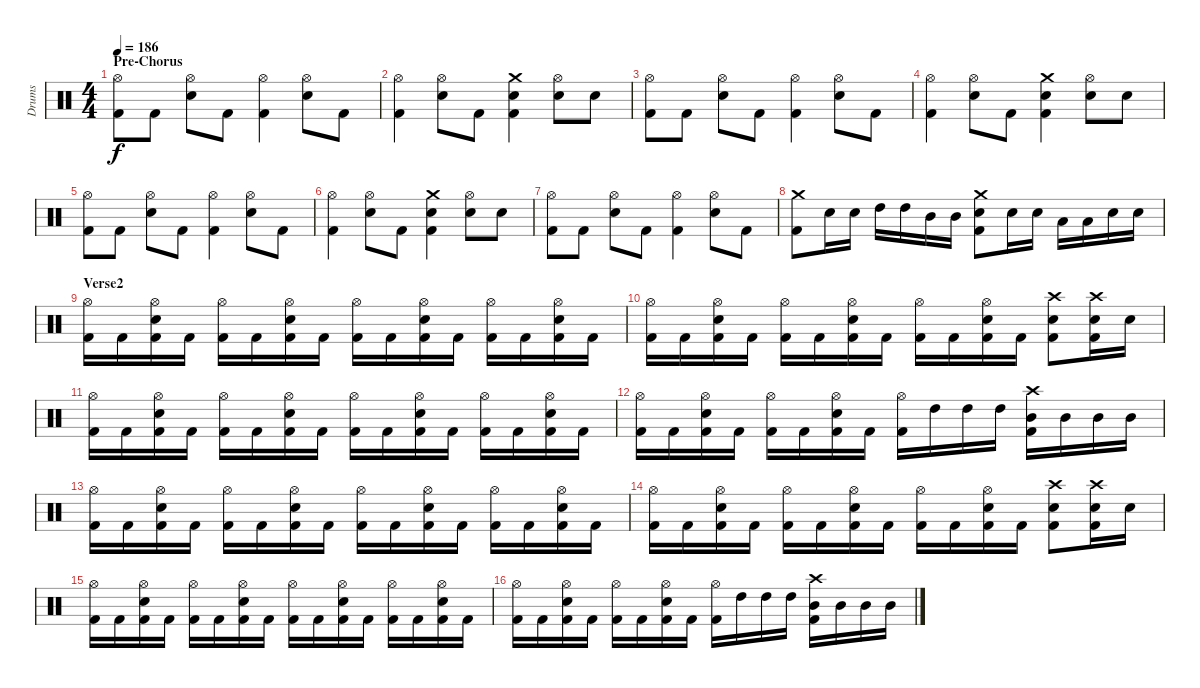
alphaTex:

\track ("Drums" "Drums") {instrument percussion}
\staff {score}
\articulation defaults
\ts (4 4)
\section ("" "Pre-Chorus")
\tempo 186
\clef neutral
\ks c
("Hi-Hat (open)" "Kick (hit) 2").8{dy f} "Kick (hit) 2".8 ("Hi-Hat (open)" "Electric Snare (hit)").8 "Kick (hit) 2".8 ("Hi-Hat (open)" "Kick (hit) 2").4 ("Hi-Hat (open)" "Electric Snare (hit)").8 "Kick (hit) 2".8 |
("Hi-Hat (open)" "Kick (hit) 2").4 ("Hi-Hat (open)" "Electric Snare (hit)").8 "Kick (hit) 2".8 ("Crash medium (hit)" "Electric Snare (hit)" "Kick (hit) 2").4 ("Hi-Hat (open)" "Electric Snare (hit)").8 "Electric Snare (hit)".8 |
("Hi-Hat (open)" "Kick (hit) 2").8 "Kick (hit) 2".8 ("Hi-Hat (open)" "Electric Snare (hit)").8 "Kick (hit) 2".8 ("Hi-Hat (open)" "Kick (hit) 2").4 ("Hi-Hat (open)" "Electric Snare (hit)").8 "Kick (hit) 2".8 |
("Hi-Hat (open)" "Kick (hit) 2").4 ("Hi-Hat (open)" "Electric Snare (hit)").8 "Kick (hit) 2".8 ("Crash medium (hit)" "Electric Snare (hit)" "Kick (hit) 2").4 ("Hi-Hat (open)" "Electric Snare (hit)").8 "Electric Snare (hit)".8 |
("Hi-Hat (open)" "Kick (hit) 2").8 "Kick (hit) 2".8 ("Hi-Hat (open)" "Electric Snare (hit)").8 "Kick (hit) 2".8 ("Hi-Hat (open)" "Kick (hit) 2").4 ("Hi-Hat (open)" "Electric Snare (hit)").8 "Kick (hit) 2".8 |
("Hi-Hat (open)" "Kick (hit) 2").4 ("Hi-Hat (open)" "Electric Snare (hit)").8 "Kick (hit) 2".8 ("Crash medium (hit)" "Electric Snare (hit)" "Kick (hit) 2").4 ("Hi-Hat (open)" "Electric Snare (hit)").8 "Electric Snare (hit)".8 |
("Hi-Hat (open)" "Kick (hit) 2").8 "Kick (hit) 2".8 ("Hi-Hat (open)" "Electric Snare (hit)").8 "Kick (hit) 2".8 ("Hi-Hat (open)" "Kick (hit) 2").4 ("Hi-Hat (open)" "Electric Snare (hit)").8 "Kick (hit) 2".8 |
("Crash medium (hit)" "Kick (hit) 2").8 "Electric Snare (hit)".16 "Electric Snare (hit)".16 "High Tom (hit)".16 "High Tom (hit)".16 "Mid Tom (hit)".16 "Mid Tom (hit)".16 ("Crash medium (hit)" "Electric Snare (hit)" "Kick (hit) 2").8 "Electric Snare (hit)".16 "Electric Snare (hit)".16 "Low Tom (hit)".16 "Low Tom (hit)".16 "Electric Snare (hit)".16 "Electric Snare (hit)".16 |
\section ("" "Verse2")
("Hi-Hat (open)" "Kick (hit) 2").16 "Kick (hit) 2".16 ("Electric Snare (hit)" "Hi-Hat (open)" "Kick (hit) 2").16 "Kick (hit) 2".16 ("Hi-Hat (open)" "Kick (hit) 2").16 "Kick (hit) 2".16 ("Electric Snare (hit)" "Hi-Hat (open)" "Kick (hit) 2").16 "Kick (hit) 2".16 ("Hi-Hat (open)" "Kick (hit) 2").16 "Kick (hit) 2".16 ("Electric Snare (hit)" "Hi-Hat (open)" "Kick (hit) 2").16 "Kick (hit) 2".16 ("Hi-Hat (open)" "Kick (hit) 2").16 "Kick (hit) 2".16 ("Electric Snare (hit)" "Hi-Hat (open)" "Kick (hit) 2").16 "Kick (hit) 2".16 |
("Hi-Hat (open)" "Kick (hit) 2").16 "Kick (hit) 2".16 ("Electric Snare (hit)" "Hi-Hat (open)" "Kick (hit) 2").16 "Kick (hit) 2".16 ("Hi-Hat (open)" "Kick (hit) 2").16 "Kick (hit) 2".16 ("Electric Snare (hit)" "Hi-Hat (open)" "Kick (hit) 2").16 "Kick (hit) 2".16 ("Hi-Hat (open)" "Kick (hit) 2").16 "Kick (hit) 2".16 ("Electric Snare (hit)" "Hi-Hat (open)" "Kick (hit) 2").16 "Kick (hit) 2".16 ("Crash high (hit)" "Electric Snare (hit)" "Kick (hit) 2").8 ("Crash high (hit)" "Electric Snare (hit)" "Kick (hit) 2").16 "Electric Snare (hit)".16 |
("Hi-Hat (open)" "Kick (hit) 2").16 "Kick (hit) 2".16 ("Electric Snare (hit)" "Hi-Hat (open)" "Kick (hit) 2").16 "Kick (hit) 2".16 ("Hi-Hat (open)" "Kick (hit) 2").16 "Kick (hit) 2".16 ("Electric Snare (hit)" "Hi-Hat (open)" "Kick (hit) 2").16 "Kick (hit) 2".16 ("Hi-Hat (open)" "Kick (hit) 2").16 "Kick (hit) 2".16 ("Electric Snare (hit)" "Hi-Hat (open)" "Kick (hit) 2").16 "Kick (hit) 2".16 ("Hi-Hat (open)" "Kick (hit) 2").16 "Kick (hit) 2".16 ("Electric Snare (hit)" "Hi-Hat (open)" "Kick (hit) 2").16 "Kick (hit) 2".16 |
("Hi-Hat (open)" "Kick (hit) 2").16 "Kick (hit) 2".16 ("Electric Snare (hit)" "Hi-Hat (open)" "Kick (hit) 2").16 "Kick (hit) 2".16 ("Hi-Hat (open)" "Kick (hit) 2").16 "Kick (hit) 2".16 ("Electric Snare (hit)" "Hi-Hat (open)" "Kick (hit) 2").16 "Kick (hit) 2".16 ("Hi-Hat (open)" "Kick (hit) 2").16 "High Tom (hit)".16 "High Tom (hit)".16 "High Tom (hit)".16 ("Crash high (hit)" "Mid Tom (hit)" "Kick (hit) 2").16 "Mid Tom (hit)".16 "Mid Tom (hit)".16 "Mid Tom (hit)".16 |
("Hi-Hat (open)" "Kick (hit) 2").16 "Kick (hit) 2".16 ("Electric Snare (hit)" "Hi-Hat (open)" "Kick (hit) 2").16 "Kick (hit) 2".16 ("Hi-Hat (open)" "Kick (hit) 2").16 "Kick (hit) 2".16 ("Electric Snare (hit)" "Hi-Hat (open)" "Kick (hit) 2").16 "Kick (hit) 2".16 ("Hi-Hat (open)" "Kick (hit) 2").16 "Kick (hit) 2".16 ("Electric Snare (hit)" "Hi-Hat (open)" "Kick (hit) 2").16 "Kick (hit) 2".16 ("Hi-Hat (open)" "Kick (hit) 2").16 "Kick (hit) 2".16 ("Electric Snare (hit)" "Hi-Hat (open)" "Kick (hit) 2").16 "Kick (hit) 2".16 |
("Hi-Hat (open)" "Kick (hit) 2").16 "Kick (hit) 2".16 ("Electric Snare (hit)" "Hi-Hat (open)" "Kick (hit) 2").16 "Kick (hit) 2".16 ("Hi-Hat (open)" "Kick (hit) 2").16 "Kick (hit) 2".16 ("Electric Snare (hit)" "Hi-Hat (open)" "Kick (hit) 2").16 "Kick (hit) 2".16 ("Hi-Hat (open)" "Kick (hit) 2").16 "Kick (hit) 2".16 ("Electric Snare (hit)" "Hi-Hat (open)" "Kick (hit) 2").16 "Kick (hit) 2".16 ("Crash high (hit)" "Electric Snare (hit)" "Kick (hit) 2").8 ("Crash high (hit)" "Electric Snare (hit)" "Kick (hit) 2").16 "Electric Snare (hit)".16 |
("Hi-Hat (open)" "Kick (hit) 2").16 "Kick (hit) 2".16 ("Electric Snare (hit)" "Hi-Hat (open)" "Kick (hit) 2").16 "Kick (hit) 2".16 ("Hi-Hat (open)" "Kick (hit) 2").16 "Kick (hit) 2".16 ("Electric Snare (hit)" "Hi-Hat (open)" "Kick (hit) 2").16 "Kick (hit) 2".16 ("Hi-Hat (open)" "Kick (hit) 2").16 "Kick (hit) 2".16 ("Electric Snare (hit)" "Hi-Hat (open)" "Kick (hit) 2").16 "Kick (hit) 2".16 ("Hi-Hat (open)" "Kick (hit) 2").16 "Kick (hit) 2".16 ("Electric Snare (hit)" "Hi-Hat (open)" "Kick (hit) 2").16 "Kick (hit) 2".16 |
("Hi-Hat (open)" "Kick (hit) 2").16 "Kick (hit) 2".16 ("Electric Snare (hit)" "Hi-Hat (open)" "Kick (hit) 2").16 "Kick (hit) 2".16 ("Hi-Hat (open)" "Kick (hit) 2").16 "Kick (hit) 2".16 ("Electric Snare (hit)" "Hi-Hat (open)" "Kick (hit) 2").16 "Kick (hit) 2".16 ("Hi-Hat (open)" "Kick (hit) 2").16 "High Tom (hit)".16 "High Tom (hit)".16 "High Tom (hit)".16 ("Crash high (hit)" "Mid Tom (hit)" "Kick (hit) 2").16 "Mid Tom (hit)".16 "Mid Tom (hit)".16 "Mid Tom (hit)".16
